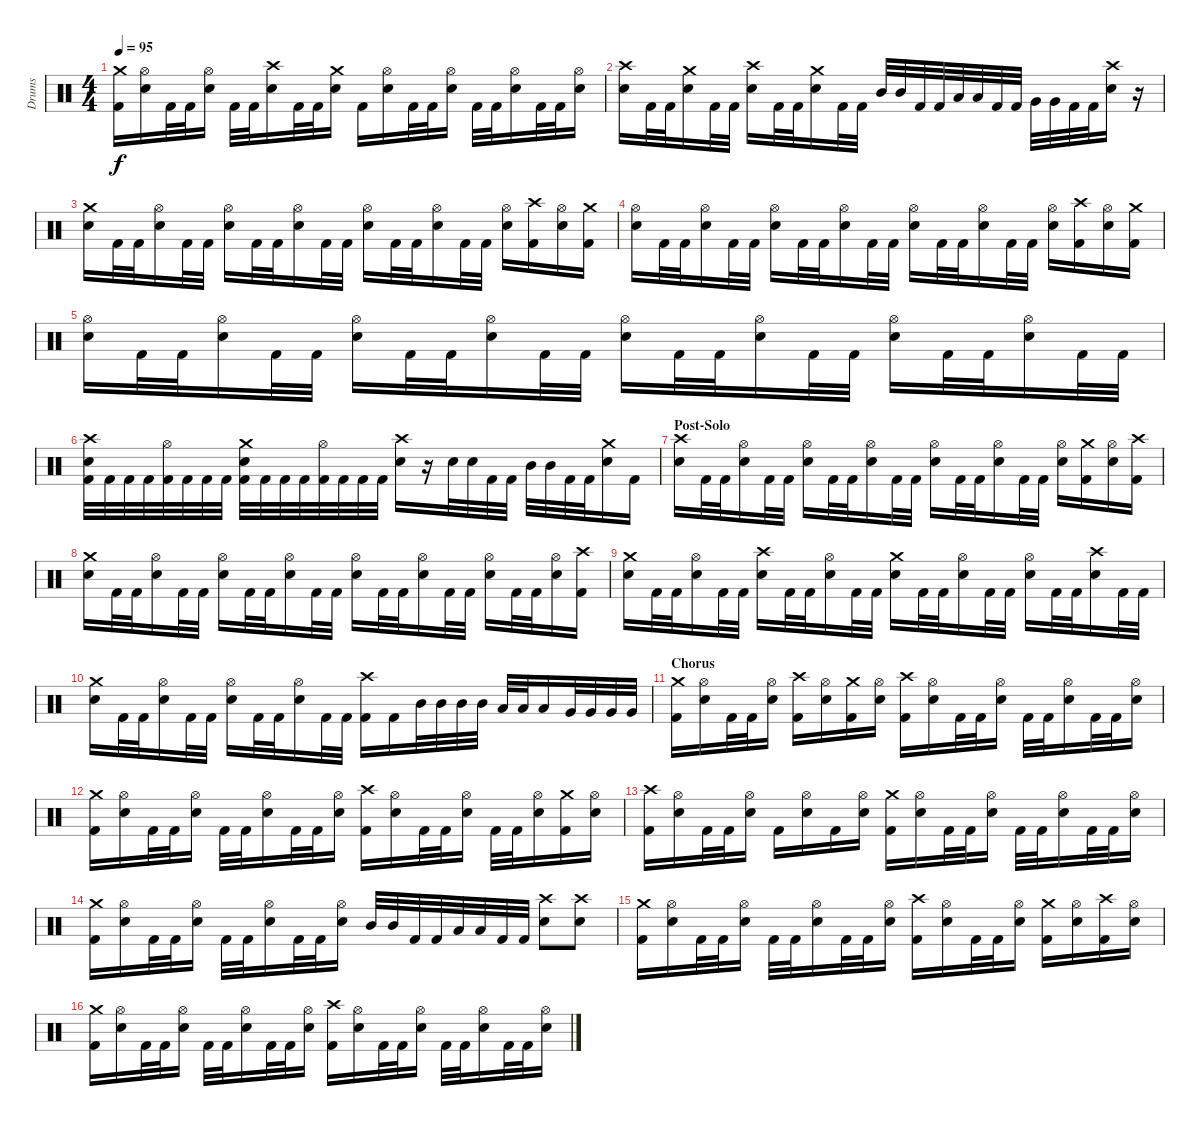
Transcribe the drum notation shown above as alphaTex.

\track ("Drums" "Drums") {instrument percussion}
\staff {score}
\articulation defaults
\ts (4 4)
\tempo 95
\clef neutral
\ks c
("Crash medium (hit)" "Kick (hit) 2").16{dy f} ("Hi-Hat (open)" "Snare (hit) 2").16 "Kick (hit) 2".32 "Kick (hit) 2".32 ("Hi-Hat (open)" "Snare (hit) 2").16 "Kick (hit) 2".32 "Kick (hit) 2".32 ("Crash high (hit)" "Snare (hit) 2").16 "Kick (hit) 2".32 "Kick (hit) 2".32 ("Crash medium (hit)" "Snare (hit) 2").16 "Kick (hit) 2".16 ("Hi-Hat (open)" "Snare (hit) 2").16 "Kick (hit) 2".32 "Kick (hit) 2".32 ("Hi-Hat (open)" "Snare (hit) 2").16 "Kick (hit) 2".32 "Kick (hit) 2".32 ("Hi-Hat (open)" "Snare (hit) 2").16 "Kick (hit) 2".32 "Kick (hit) 2".32 ("Hi-Hat (open)" "Snare (hit) 2").16 |
("Crash high (hit)" "Snare (hit) 2").16 "Kick (hit) 2".32 "Kick (hit) 2".32 ("Crash medium (hit)" "Snare (hit) 2").16 "Kick (hit) 2".32 "Kick (hit) 2".32 ("Crash high (hit)" "Snare (hit) 2").16 "Kick (hit) 2".32 "Kick (hit) 2".32 ("Crash medium (hit)" "Snare (hit) 2").16 "Kick (hit) 2".32 "Kick (hit) 2".32 "Mid Tom (hit)".32 "Mid Tom (hit)".32 "Kick (hit) 2".32 "Kick (hit) 2".32 "Low Tom (hit)".32 "Low Tom (hit)".32 "Kick (hit) 2".32 "Kick (hit) 2".32 "Very Low Tom (hit)".32 "Very Low Tom (hit)".32 "Kick (hit) 2".32 "Kick (hit) 2".32 ("Crash high (hit)" "Snare (hit) 2").16 r.16 |
("Crash medium (hit)" "Snare (hit) 2").16 "Kick (hit) 2".32 "Kick (hit) 2".32 ("Hi-Hat (open)" "Snare (hit) 2").16 "Kick (hit) 2".32 "Kick (hit) 2".32 ("Hi-Hat (open)" "Snare (hit) 2").16 "Kick (hit) 2".32 "Kick (hit) 2".32 ("Hi-Hat (open)" "Snare (hit) 2").16 "Kick (hit) 2".32 "Kick (hit) 2".32 ("Hi-Hat (open)" "Snare (hit) 2").16 "Kick (hit) 2".32 "Kick (hit) 2".32 ("Hi-Hat (open)" "Snare (hit) 2").16 "Kick (hit) 2".32 "Kick (hit) 2".32 ("Hi-Hat (open)" "Snare (hit) 2").16 ("Crash high (hit)" "Kick (hit) 2").16 ("Hi-Hat (open)" "Snare (hit) 2").16 ("Crash medium (hit)" "Kick (hit) 2").16 |
("Hi-Hat (open)" "Snare (hit) 2").16 "Kick (hit) 2".32 "Kick (hit) 2".32 ("Hi-Hat (open)" "Snare (hit) 2").16 "Kick (hit) 2".32 "Kick (hit) 2".32 ("Hi-Hat (open)" "Snare (hit) 2").16 "Kick (hit) 2".32 "Kick (hit) 2".32 ("Hi-Hat (open)" "Snare (hit) 2").16 "Kick (hit) 2".32 "Kick (hit) 2".32 ("Hi-Hat (open)" "Snare (hit) 2").16 "Kick (hit) 2".32 "Kick (hit) 2".32 ("Hi-Hat (open)" "Snare (hit) 2").16 "Kick (hit) 2".32 "Kick (hit) 2".32 ("Hi-Hat (open)" "Snare (hit) 2").16 ("Crash high (hit)" "Kick (hit) 2").16 ("Hi-Hat (open)" "Snare (hit) 2").16 ("Crash medium (hit)" "Kick (hit) 2").16 |
("Hi-Hat (open)" "Snare (hit) 2").16 "Kick (hit) 2".32 "Kick (hit) 2".32 ("Hi-Hat (open)" "Snare (hit) 2").16 "Kick (hit) 2".32 "Kick (hit) 2".32 ("Hi-Hat (open)" "Snare (hit) 2").16 "Kick (hit) 2".32 "Kick (hit) 2".32 ("Hi-Hat (open)" "Snare (hit) 2").16 "Kick (hit) 2".32 "Kick (hit) 2".32 ("Hi-Hat (open)" "Snare (hit) 2").16 "Kick (hit) 2".32 "Kick (hit) 2".32 ("Hi-Hat (open)" "Snare (hit) 2").16 "Kick (hit) 2".32 "Kick (hit) 2".32 ("Hi-Hat (open)" "Snare (hit) 2").16 "Kick (hit) 2".32 "Kick (hit) 2".32 ("Hi-Hat (open)" "Snare (hit) 2").16 "Kick (hit) 2".32 "Kick (hit) 2".32 |
("Crash high (hit)" "Snare (hit) 2" "Kick (hit) 2").32 "Kick (hit) 2".32 "Kick (hit) 2".32 "Kick (hit) 2".32 ("Hi-Hat (open)" "Kick (hit) 2").32 "Kick (hit) 2".32 "Kick (hit) 2".32 "Kick (hit) 2".32 ("Crash medium (hit)" "Snare (hit) 2" "Kick (hit) 2").32 "Kick (hit) 2".32 "Kick (hit) 2".32 "Kick (hit) 2".32 ("Hi-Hat (open)" "Kick (hit) 2").32 "Kick (hit) 2".32 "Kick (hit) 2".32 "Kick (hit) 2".32 ("Crash high (hit)" "Snare (hit) 2").16 r.16 "Snare (hit) 2".32 "Snare (hit) 2".32 "Kick (hit) 2".32 "Kick (hit) 2".32 "Mid Tom (hit)".32 "Mid Tom (hit)".32 "Kick (hit) 2".32 "Kick (hit) 2".32 ("Crash medium (hit)" "Snare (hit) 2").16 "Kick (hit) 2".16 |
\section ("" "Post-Solo")
("Crash high (hit)" "Snare (hit) 2").16 "Kick (hit) 2".32 "Kick (hit) 2".32 ("Hi-Hat (open)" "Snare (hit) 2").16 "Kick (hit) 2".32 "Kick (hit) 2".32 ("Hi-Hat (open)" "Snare (hit) 2").16 "Kick (hit) 2".32 "Kick (hit) 2".32 ("Hi-Hat (open)" "Snare (hit) 2").16 "Kick (hit) 2".32 "Kick (hit) 2".32 ("Hi-Hat (open)" "Snare (hit) 2").16 "Kick (hit) 2".32 "Kick (hit) 2".32 ("Hi-Hat (open)" "Snare (hit) 2").16 "Kick (hit) 2".32 "Kick (hit) 2".32 ("Hi-Hat (open)" "Snare (hit) 2").16 ("Crash medium (hit)" "Kick (hit) 2").16 ("Hi-Hat (open)" "Snare (hit) 2").16 ("Crash high (hit)" "Kick (hit) 2").16 |
("Crash medium (hit)" "Snare (hit) 2").16 "Kick (hit) 2".32 "Kick (hit) 2".32 ("Hi-Hat (open)" "Snare (hit) 2").16 "Kick (hit) 2".32 "Kick (hit) 2".32 ("Hi-Hat (open)" "Snare (hit) 2").16 "Kick (hit) 2".32 "Kick (hit) 2".32 ("Hi-Hat (open)" "Snare (hit) 2").16 "Kick (hit) 2".32 "Kick (hit) 2".32 ("Hi-Hat (open)" "Snare (hit) 2").16 "Kick (hit) 2".32 "Kick (hit) 2".32 ("Hi-Hat (open)" "Snare (hit) 2").16 "Kick (hit) 2".32 "Kick (hit) 2".32 ("Hi-Hat (open)" "Snare (hit) 2").16 "Kick (hit) 2".32 "Kick (hit) 2".32 ("Hi-Hat (open)" "Snare (hit) 2").16 ("Crash high (hit)" "Kick (hit) 2").16 |
("Crash medium (hit)" "Snare (hit) 2").16 "Kick (hit) 2".32 "Kick (hit) 2".32 ("Hi-Hat (open)" "Snare (hit) 2").16 "Kick (hit) 2".32 "Kick (hit) 2".32 ("Crash high (hit)" "Snare (hit) 2").16 "Kick (hit) 2".32 "Kick (hit) 2".32 ("Hi-Hat (open)" "Snare (hit) 2").16 "Kick (hit) 2".32 "Kick (hit) 2".32 ("Crash medium (hit)" "Snare (hit) 2").16 "Kick (hit) 2".32 "Kick (hit) 2".32 ("Hi-Hat (open)" "Snare (hit) 2").16 "Kick (hit) 2".32 "Kick (hit) 2".32 ("Hi-Hat (open)" "Snare (hit) 2").16 "Kick (hit) 2".32 "Kick (hit) 2".32 ("Crash high (hit)" "Snare (hit) 2").16 "Kick (hit) 2".32 "Kick (hit) 2".32 |
("Crash medium (hit)" "Snare (hit) 2").16 "Kick (hit) 2".32 "Kick (hit) 2".32 ("Hi-Hat (open)" "Snare (hit) 2").16 "Kick (hit) 2".32 "Kick (hit) 2".32 ("Hi-Hat (open)" "Snare (hit) 2").16 "Kick (hit) 2".32 "Kick (hit) 2".32 ("Hi-Hat (open)" "Snare (hit) 2").16 "Kick (hit) 2".32 "Kick (hit) 2".32 ("Crash high (hit)" "Kick (hit) 2").16 "Kick (hit) 2".16 "Mid Tom (hit)".32 "Mid Tom (hit)".32 "Mid Tom (hit)".32 "Mid Tom (hit)".32 "Low Tom (hit)".32 "Low Tom (hit)".32 "Low Tom (hit)".16 "Very Low Tom (hit)".32 "Very Low Tom (hit)".32 "Very Low Tom (hit)".32 "Very Low Tom (hit)".32 |
\section ("" "Chorus")
("Crash medium (hit)" "Kick (hit) 2").16 ("Hi-Hat (open)" "Snare (hit) 2").16 "Kick (hit) 2".32 "Kick (hit) 2".32 ("Hi-Hat (open)" "Snare (hit) 2").16 ("Crash high (hit)" "Kick (hit) 2").16 ("Hi-Hat (open)" "Snare (hit) 2").16 ("Crash medium (hit)" "Kick (hit) 2").16 ("Hi-Hat (open)" "Snare (hit) 2").16 ("Crash high (hit)" "Kick (hit) 2").16 ("Hi-Hat (open)" "Snare (hit) 2").16 "Kick (hit) 2".32 "Kick (hit) 2".32 ("Hi-Hat (open)" "Snare (hit) 2").16 "Kick (hit) 2".32 "Kick (hit) 2".32 ("Hi-Hat (open)" "Snare (hit) 2").16 "Kick (hit) 2".32 "Kick (hit) 2".32 ("Hi-Hat (open)" "Snare (hit) 2").16 |
("Crash medium (hit)" "Kick (hit) 2").16 ("Hi-Hat (open)" "Snare (hit) 2").16 "Kick (hit) 2".32 "Kick (hit) 2".32 ("Hi-Hat (open)" "Snare (hit) 2").16 "Kick (hit) 2".32 "Kick (hit) 2".32 ("Hi-Hat (open)" "Snare (hit) 2").16 "Kick (hit) 2".32 "Kick (hit) 2".32 ("Hi-Hat (open)" "Snare (hit) 2").16 ("Crash high (hit)" "Kick (hit) 2").16 ("Hi-Hat (open)" "Snare (hit) 2").16 "Kick (hit) 2".32 "Kick (hit) 2".32 ("Hi-Hat (open)" "Snare (hit) 2").16 "Kick (hit) 2".32 "Kick (hit) 2".32 ("Hi-Hat (open)" "Snare (hit) 2").16 ("Crash medium (hit)" "Kick (hit) 2").16 ("Hi-Hat (open)" "Snare (hit) 2").16 |
("Crash high (hit)" "Kick (hit) 2").16 ("Hi-Hat (open)" "Snare (hit) 2").16 "Kick (hit) 2".32 "Kick (hit) 2".32 ("Hi-Hat (open)" "Snare (hit) 2").16 "Kick (hit) 2".16 ("Hi-Hat (open)" "Snare (hit) 2").16 "Kick (hit) 2".16 ("Hi-Hat (open)" "Snare (hit) 2").16 ("Crash medium (hit)" "Kick (hit) 2").16 ("Hi-Hat (open)" "Snare (hit) 2").16 "Kick (hit) 2".32 "Kick (hit) 2".32 ("Hi-Hat (open)" "Snare (hit) 2").16 "Kick (hit) 2".32 "Kick (hit) 2".32 ("Hi-Hat (open)" "Snare (hit) 2").16 "Kick (hit) 2".32 "Kick (hit) 2".32 ("Hi-Hat (open)" "Snare (hit) 2").16 |
("Crash medium (hit)" "Kick (hit) 2").16 ("Hi-Hat (open)" "Snare (hit) 2").16 "Kick (hit) 2".32 "Kick (hit) 2".32 ("Hi-Hat (open)" "Snare (hit) 2").16 "Kick (hit) 2".32 "Kick (hit) 2".32 ("Hi-Hat (open)" "Snare (hit) 2").16 "Kick (hit) 2".32 "Kick (hit) 2".32 ("Hi-Hat (open)" "Snare (hit) 2").16 "Mid Tom (hit)".32 "Mid Tom (hit)".32 "Kick (hit) 2".32 "Kick (hit) 2".32 "Low Tom (hit)".32 "Low Tom (hit)".32 "Kick (hit) 2".32 "Kick (hit) 2".32 ("Crash high (hit)" "Snare (hit) 2").8 ("Crash high (hit)" "Snare (hit) 2").8 |
("Crash medium (hit)" "Kick (hit) 2").16 ("Hi-Hat (open)" "Snare (hit) 2").16 "Kick (hit) 2".32 "Kick (hit) 2".32 ("Hi-Hat (open)" "Snare (hit) 2").16 "Kick (hit) 2".32 "Kick (hit) 2".32 ("Hi-Hat (open)" "Snare (hit) 2").16 "Kick (hit) 2".32 "Kick (hit) 2".32 ("Hi-Hat (open)" "Snare (hit) 2").16 ("Crash high (hit)" "Kick (hit) 2").16 ("Hi-Hat (open)" "Snare (hit) 2").16 "Kick (hit) 2".32 "Kick (hit) 2".32 ("Hi-Hat (open)" "Snare (hit) 2").16 ("Crash medium (hit)" "Kick (hit) 2").16 ("Hi-Hat (open)" "Snare (hit) 2").16 ("Crash high (hit)" "Kick (hit) 2").16 ("Hi-Hat (open)" "Snare (hit) 2").16 |
("Crash medium (hit)" "Kick (hit) 2").16 ("Hi-Hat (open)" "Snare (hit) 2").16 "Kick (hit) 2".32 "Kick (hit) 2".32 ("Hi-Hat (open)" "Snare (hit) 2").16 "Kick (hit) 2".32 "Kick (hit) 2".32 ("Hi-Hat (open)" "Snare (hit) 2").16 "Kick (hit) 2".32 "Kick (hit) 2".32 ("Hi-Hat (open)" "Snare (hit) 2").16 ("Crash high (hit)" "Kick (hit) 2").16 ("Hi-Hat (open)" "Snare (hit) 2").16 "Kick (hit) 2".32 "Kick (hit) 2".32 ("Hi-Hat (open)" "Snare (hit) 2").16 "Kick (hit) 2".32 "Kick (hit) 2".32 ("Hi-Hat (open)" "Snare (hit) 2").16 "Kick (hit) 2".32 "Kick (hit) 2".32 ("Hi-Hat (open)" "Snare (hit) 2").16
